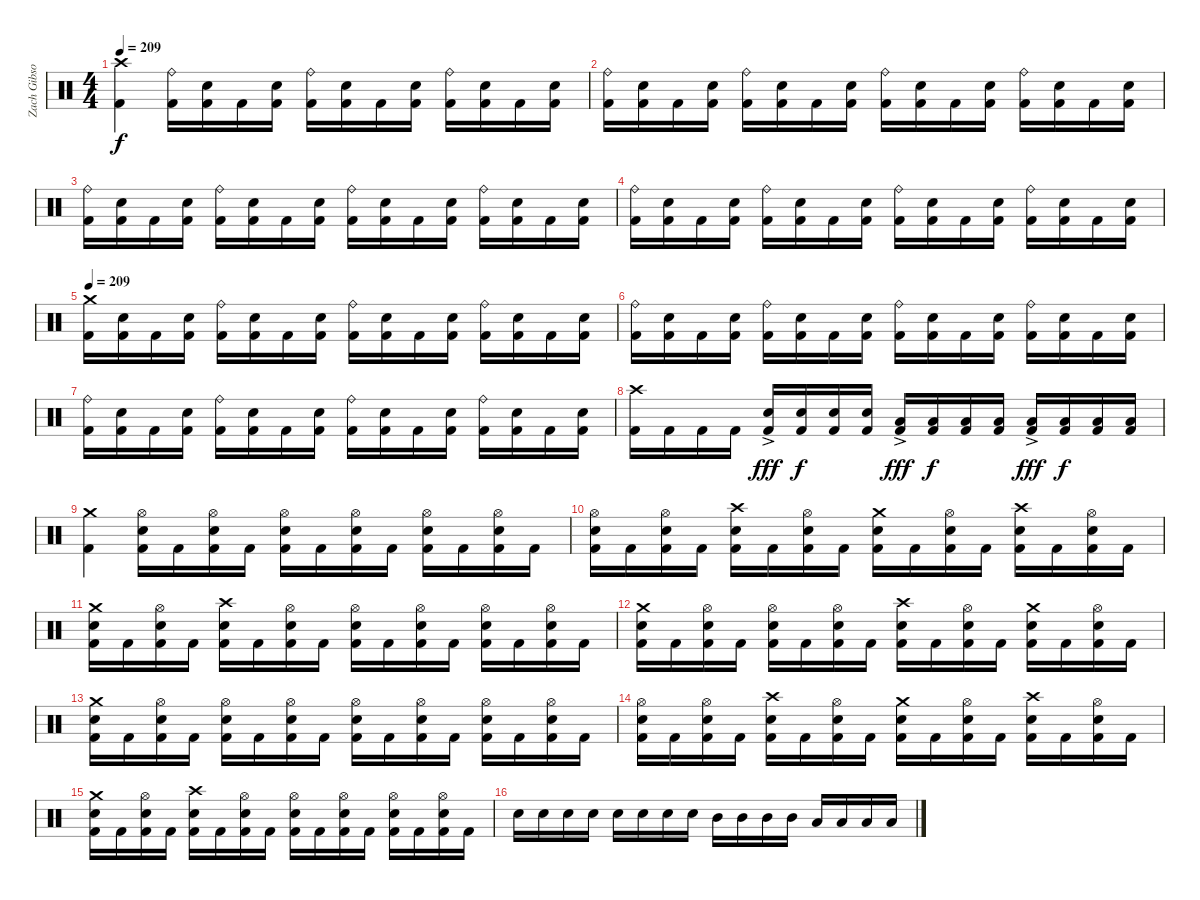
\track ("Zach Gibson (Drums)" "Zach Gibso") {instrument percussion}
\staff {score}
\articulation defaults
\ts (4 4)
\tempo 209
\clef neutral
\ks c
("Crash high (hit)" "Kick (hit) 2").4{dy f} ("Ride (bell)" "Kick (hit) 2").16 ("Snare (hit) 2" "Kick (hit) 2").16 "Kick (hit) 2".16 ("Snare (hit) 2" "Kick (hit) 2").16 ("Ride (bell)" "Kick (hit) 2").16 ("Snare (hit) 2" "Kick (hit) 2").16 "Kick (hit) 2".16 ("Snare (hit) 2" "Kick (hit) 2").16 ("Ride (bell)" "Kick (hit) 2").16 ("Snare (hit) 2" "Kick (hit) 2").16 "Kick (hit) 2".16 ("Snare (hit) 2" "Kick (hit) 2").16 |
("Ride (bell)" "Kick (hit) 2").16 ("Snare (hit) 2" "Kick (hit) 2").16 "Kick (hit) 2".16 ("Snare (hit) 2" "Kick (hit) 2").16 ("Ride (bell)" "Kick (hit) 2").16 ("Snare (hit) 2" "Kick (hit) 2").16 "Kick (hit) 2".16 ("Snare (hit) 2" "Kick (hit) 2").16 ("Ride (bell)" "Kick (hit) 2").16 ("Snare (hit) 2" "Kick (hit) 2").16 "Kick (hit) 2".16 ("Snare (hit) 2" "Kick (hit) 2").16 ("Ride (bell)" "Kick (hit) 2").16 ("Snare (hit) 2" "Kick (hit) 2").16 "Kick (hit) 2".16 ("Snare (hit) 2" "Kick (hit) 2").16 |
("Ride (bell)" "Kick (hit) 2").16 ("Snare (hit) 2" "Kick (hit) 2").16 "Kick (hit) 2".16 ("Snare (hit) 2" "Kick (hit) 2").16 ("Ride (bell)" "Kick (hit) 2").16 ("Snare (hit) 2" "Kick (hit) 2").16 "Kick (hit) 2".16 ("Snare (hit) 2" "Kick (hit) 2").16 ("Ride (bell)" "Kick (hit) 2").16 ("Snare (hit) 2" "Kick (hit) 2").16 "Kick (hit) 2".16 ("Snare (hit) 2" "Kick (hit) 2").16 ("Ride (bell)" "Kick (hit) 2").16 ("Snare (hit) 2" "Kick (hit) 2").16 "Kick (hit) 2".16 ("Snare (hit) 2" "Kick (hit) 2").16 |
("Ride (bell)" "Kick (hit) 2").16 ("Snare (hit) 2" "Kick (hit) 2").16 "Kick (hit) 2".16 ("Snare (hit) 2" "Kick (hit) 2").16 ("Ride (bell)" "Kick (hit) 2").16 ("Snare (hit) 2" "Kick (hit) 2").16 "Kick (hit) 2".16 ("Snare (hit) 2" "Kick (hit) 2").16 ("Ride (bell)" "Kick (hit) 2").16 ("Snare (hit) 2" "Kick (hit) 2").16 "Kick (hit) 2".16 ("Snare (hit) 2" "Kick (hit) 2").16 ("Ride (bell)" "Kick (hit) 2").16 ("Snare (hit) 2" "Kick (hit) 2").16 "Kick (hit) 2".16 ("Snare (hit) 2" "Kick (hit) 2").16 |
\tempo 209
("Crash medium (hit)" "Kick (hit) 2").16 ("Snare (hit) 2" "Kick (hit) 2").16 "Kick (hit) 2".16 ("Snare (hit) 2" "Kick (hit) 2").16 ("Ride (bell)" "Kick (hit) 2").16 ("Snare (hit) 2" "Kick (hit) 2").16 "Kick (hit) 2".16 ("Snare (hit) 2" "Kick (hit) 2").16 ("Ride (bell)" "Kick (hit) 2").16 ("Snare (hit) 2" "Kick (hit) 2").16 "Kick (hit) 2".16 ("Snare (hit) 2" "Kick (hit) 2").16 ("Ride (bell)" "Kick (hit) 2").16 ("Snare (hit) 2" "Kick (hit) 2").16 "Kick (hit) 2".16 ("Snare (hit) 2" "Kick (hit) 2").16 |
("Ride (bell)" "Kick (hit) 2").16 ("Snare (hit) 2" "Kick (hit) 2").16 "Kick (hit) 2".16 ("Snare (hit) 2" "Kick (hit) 2").16 ("Ride (bell)" "Kick (hit) 2").16 ("Snare (hit) 2" "Kick (hit) 2").16 "Kick (hit) 2".16 ("Snare (hit) 2" "Kick (hit) 2").16 ("Ride (bell)" "Kick (hit) 2").16 ("Snare (hit) 2" "Kick (hit) 2").16 "Kick (hit) 2".16 ("Snare (hit) 2" "Kick (hit) 2").16 ("Ride (bell)" "Kick (hit) 2").16 ("Snare (hit) 2" "Kick (hit) 2").16 "Kick (hit) 2".16 ("Snare (hit) 2" "Kick (hit) 2").16 |
("Ride (bell)" "Kick (hit) 2").16 ("Snare (hit) 2" "Kick (hit) 2").16 "Kick (hit) 2".16 ("Snare (hit) 2" "Kick (hit) 2").16 ("Ride (bell)" "Kick (hit) 2").16 ("Snare (hit) 2" "Kick (hit) 2").16 "Kick (hit) 2".16 ("Snare (hit) 2" "Kick (hit) 2").16 ("Ride (bell)" "Kick (hit) 2").16 ("Snare (hit) 2" "Kick (hit) 2").16 "Kick (hit) 2".16 ("Snare (hit) 2" "Kick (hit) 2").16 ("Ride (bell)" "Kick (hit) 2").16 ("Snare (hit) 2" "Kick (hit) 2").16 "Kick (hit) 2".16 ("Snare (hit) 2" "Kick (hit) 2").16 |
("Crash high (hit)" "Kick (hit) 2").16 "Kick (hit) 2".16 "Kick (hit) 2".16 "Kick (hit) 2".16 ("Snare (hit) 2" "Kick (hit) 2"{ac}).16{dy fff} ("Snare (hit) 2" "Kick (hit) 2").16{dy f} ("Snare (hit) 2" "Kick (hit) 2").16 ("Snare (hit) 2" "Kick (hit) 2").16 ("Low Tom (hit)" "Kick (hit) 2"{ac}).16{dy fff} ("Low Tom (hit)" "Kick (hit) 2").16{dy f} ("Low Tom (hit)" "Kick (hit) 2").16 ("Low Tom (hit)" "Kick (hit) 2").16 ("Low Floor Tom (hit)" "Kick (hit) 2"{ac}).16{dy fff} ("Low Floor Tom (hit)" "Kick (hit) 2").16{dy f} ("Low Floor Tom (hit)" "Kick (hit) 2").16 ("Low Floor Tom (hit)" "Kick (hit) 2").16 |
("Crash medium (hit)" "Kick (hit) 2").4 ("Hi-Hat (open)" "Snare (hit) 2" "Kick (hit) 2").16 "Kick (hit) 2".16 ("Hi-Hat (open)" "Snare (hit) 2" "Kick (hit) 2").16 "Kick (hit) 2".16 ("Hi-Hat (open)" "Snare (hit) 2" "Kick (hit) 2").16 "Kick (hit) 2".16 ("Hi-Hat (open)" "Snare (hit) 2" "Kick (hit) 2").16 "Kick (hit) 2".16 ("Hi-Hat (open)" "Snare (hit) 2" "Kick (hit) 2").16 "Kick (hit) 2".16 ("Hi-Hat (open)" "Snare (hit) 2" "Kick (hit) 2").16 "Kick (hit) 2".16 |
("Hi-Hat (open)" "Snare (hit) 2" "Kick (hit) 2").16 "Kick (hit) 2".16 ("Hi-Hat (open)" "Snare (hit) 2" "Kick (hit) 2").16 "Kick (hit) 2".16 ("Crash high (hit)" "Snare (hit) 2" "Kick (hit) 2").16 "Kick (hit) 2".16 ("Hi-Hat (open)" "Snare (hit) 2" "Kick (hit) 2").16 "Kick (hit) 2".16 ("Crash medium (hit)" "Snare (hit) 2" "Kick (hit) 2").16 "Kick (hit) 2".16 ("Hi-Hat (open)" "Snare (hit) 2" "Kick (hit) 2").16 "Kick (hit) 2".16 ("Crash high (hit)" "Snare (hit) 2" "Kick (hit) 2").16 "Kick (hit) 2".16 ("Hi-Hat (open)" "Snare (hit) 2" "Kick (hit) 2").16 "Kick (hit) 2".16 |
("Crash medium (hit)" "Snare (hit) 2" "Kick (hit) 2").16 "Kick (hit) 2".16 ("Hi-Hat (open)" "Snare (hit) 2" "Kick (hit) 2").16 "Kick (hit) 2".16 ("Crash high (hit)" "Snare (hit) 2" "Kick (hit) 2").16 "Kick (hit) 2".16 ("Hi-Hat (open)" "Snare (hit) 2" "Kick (hit) 2").16 "Kick (hit) 2".16 ("Hi-Hat (open)" "Snare (hit) 2" "Kick (hit) 2").16 "Kick (hit) 2".16 ("Hi-Hat (open)" "Snare (hit) 2" "Kick (hit) 2").16 "Kick (hit) 2".16 ("Hi-Hat (open)" "Snare (hit) 2" "Kick (hit) 2").16 "Kick (hit) 2".16 ("Hi-Hat (open)" "Snare (hit) 2" "Kick (hit) 2").16 "Kick (hit) 2".16 |
("Crash medium (hit)" "Snare (hit) 2" "Kick (hit) 2").16 "Kick (hit) 2".16 ("Hi-Hat (open)" "Snare (hit) 2" "Kick (hit) 2").16 "Kick (hit) 2".16 ("Hi-Hat (open)" "Snare (hit) 2" "Kick (hit) 2").16 "Kick (hit) 2".16 ("Hi-Hat (open)" "Snare (hit) 2" "Kick (hit) 2").16 "Kick (hit) 2".16 ("Crash high (hit)" "Snare (hit) 2" "Kick (hit) 2").16 "Kick (hit) 2".16 ("Hi-Hat (open)" "Snare (hit) 2" "Kick (hit) 2").16 "Kick (hit) 2".16 ("Crash medium (hit)" "Snare (hit) 2" "Kick (hit) 2").16 "Kick (hit) 2".16 ("Hi-Hat (open)" "Snare (hit) 2" "Kick (hit) 2").16 "Kick (hit) 2".16 |
("Crash medium (hit)" "Snare (hit) 2" "Kick (hit) 2").16 "Kick (hit) 2".16 ("Hi-Hat (open)" "Snare (hit) 2" "Kick (hit) 2").16 "Kick (hit) 2".16 ("Hi-Hat (open)" "Snare (hit) 2" "Kick (hit) 2").16 "Kick (hit) 2".16 ("Hi-Hat (open)" "Snare (hit) 2" "Kick (hit) 2").16 "Kick (hit) 2".16 ("Hi-Hat (open)" "Snare (hit) 2" "Kick (hit) 2").16 "Kick (hit) 2".16 ("Hi-Hat (open)" "Snare (hit) 2" "Kick (hit) 2").16 "Kick (hit) 2".16 ("Hi-Hat (open)" "Snare (hit) 2" "Kick (hit) 2").16 "Kick (hit) 2".16 ("Hi-Hat (open)" "Snare (hit) 2" "Kick (hit) 2").16 "Kick (hit) 2".16 |
("Hi-Hat (open)" "Snare (hit) 2" "Kick (hit) 2").16 "Kick (hit) 2".16 ("Hi-Hat (open)" "Snare (hit) 2" "Kick (hit) 2").16 "Kick (hit) 2".16 ("Crash high (hit)" "Snare (hit) 2" "Kick (hit) 2").16 "Kick (hit) 2".16 ("Hi-Hat (open)" "Snare (hit) 2" "Kick (hit) 2").16 "Kick (hit) 2".16 ("Crash medium (hit)" "Snare (hit) 2" "Kick (hit) 2").16 "Kick (hit) 2".16 ("Hi-Hat (open)" "Snare (hit) 2" "Kick (hit) 2").16 "Kick (hit) 2".16 ("Crash high (hit)" "Snare (hit) 2" "Kick (hit) 2").16 "Kick (hit) 2".16 ("Hi-Hat (open)" "Snare (hit) 2" "Kick (hit) 2").16 "Kick (hit) 2".16 |
("Crash medium (hit)" "Snare (hit) 2" "Kick (hit) 2").16 "Kick (hit) 2".16 ("Hi-Hat (open)" "Snare (hit) 2" "Kick (hit) 2").16 "Kick (hit) 2".16 ("Crash high (hit)" "Snare (hit) 2" "Kick (hit) 2").16 "Kick (hit) 2".16 ("Hi-Hat (open)" "Snare (hit) 2" "Kick (hit) 2").16 "Kick (hit) 2".16 ("Hi-Hat (open)" "Snare (hit) 2" "Kick (hit) 2").16 "Kick (hit) 2".16 ("Hi-Hat (open)" "Snare (hit) 2" "Kick (hit) 2").16 "Kick (hit) 2".16 ("Hi-Hat (open)" "Snare (hit) 2" "Kick (hit) 2").16 "Kick (hit) 2".16 ("Hi-Hat (open)" "Snare (hit) 2" "Kick (hit) 2").16 "Kick (hit) 2".16 |
"Snare (hit) 2".16 "Snare (hit) 2".16 "Snare (hit) 2".16 "Snare (hit) 2".16 "Snare (hit) 2".16 "Snare (hit) 2".16 "Snare (hit) 2".16 "Snare (hit) 2".16 "Mid Tom (hit)".16 "Mid Tom (hit)".16 "Mid Tom (hit)".16 "Mid Tom (hit)".16 "Low Floor Tom (hit)".16 "Low Floor Tom (hit)".16 "Low Floor Tom (hit)".16 "Low Floor Tom (hit)".16
